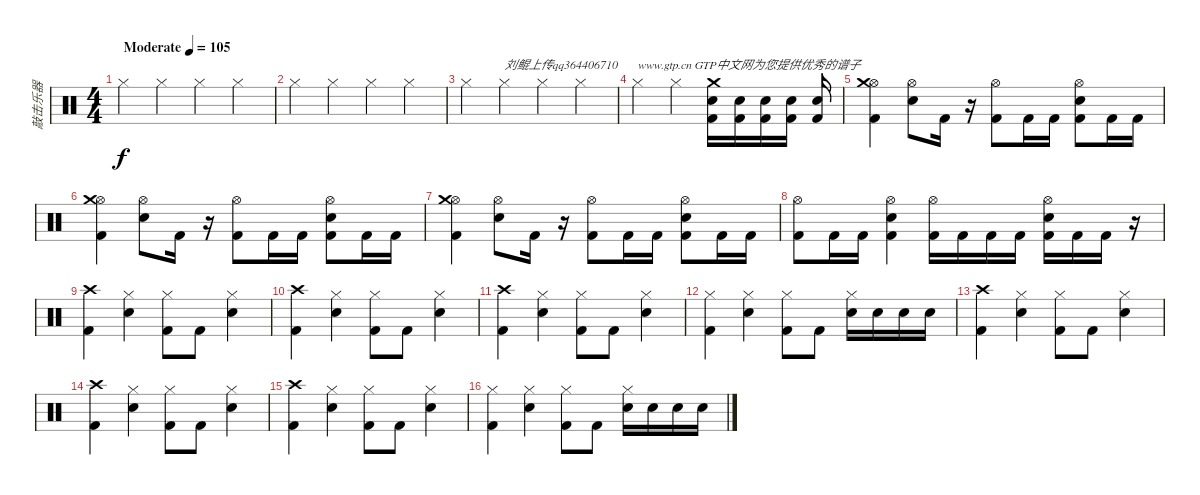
\track ("敲击乐器" "敲击乐器") {instrument percussion}
\staff {score}
\articulation defaults
\ts (4 4)
\tempo (105 "Moderate")
\clef neutral
\ks c "Hi-Hat (closed)".4{dy f} "Hi-Hat (closed)".4 "Hi-Hat (closed)".4 "Hi-Hat (closed)".4
|
"Hi-Hat (closed)".4 "Hi-Hat (closed)".4 "Hi-Hat (closed)".4 "Hi-Hat (closed)".4 |
"Hi-Hat (closed)".4 "Hi-Hat (closed)".4{txt "刘鲲上传qq364406710"} "Hi-Hat (closed)".4 "Hi-Hat (closed)".4 |
"Hi-Hat (closed)".4{txt "www.gtp.cn GTP中文网为您提供优秀的谱子"} "Hi-Hat (closed)".4 ("Kick (hit) 2" "Electric Snare (hit)" "Crash medium (hit)").16 ("Kick (hit) 2" "Electric Snare (hit)").16 ("Kick (hit) 2" "Electric Snare (hit)").16 ("Kick (hit) 2" "Electric Snare (hit)").16 ("Kick (hit) 2" "Electric Snare (hit)").16 |
("Kick (hit) 2" "Hi-Hat (open)" "Crash medium (hit)").4 ("Electric Snare (hit)" "Hi-Hat (open)").8 "Kick (hit) 2".16 r.16 ("Kick (hit) 2" "Hi-Hat (open)").8 "Kick (hit) 2".16 "Kick (hit) 2".16 ("Kick (hit) 2" "Electric Snare (hit)" "Hi-Hat (open)").8 "Kick (hit) 2".16 "Kick (hit) 2".16 |
("Kick (hit) 2" "Hi-Hat (open)" "Crash medium (hit)").4 ("Electric Snare (hit)" "Hi-Hat (open)").8 "Kick (hit) 2".16 r.16 ("Kick (hit) 2" "Hi-Hat (open)").8 "Kick (hit) 2".16 "Kick (hit) 2".16 ("Kick (hit) 2" "Electric Snare (hit)" "Hi-Hat (open)").8 "Kick (hit) 2".16 "Kick (hit) 2".16 |
("Kick (hit) 2" "Hi-Hat (open)" "Crash medium (hit)").4 ("Electric Snare (hit)" "Hi-Hat (open)").8 "Kick (hit) 2".16 r.16 ("Kick (hit) 2" "Hi-Hat (open)").8 "Kick (hit) 2".16 "Kick (hit) 2".16 ("Kick (hit) 2" "Electric Snare (hit)" "Hi-Hat (open)").8 "Kick (hit) 2".16 "Kick (hit) 2".16 |
("Kick (hit) 2" "Hi-Hat (open)").8 "Kick (hit) 2".16 "Kick (hit) 2".16 ("Kick (hit) 2" "Electric Snare (hit)" "Hi-Hat (open)").4 ("Kick (hit) 2" "Hi-Hat (open)").16 "Kick (hit) 2".16 "Kick (hit) 2".16 "Kick (hit) 2".16 ("Kick (hit) 2" "Electric Snare (hit)" "Hi-Hat (open)").16 "Kick (hit) 2".16 "Kick (hit) 2".16 r.16 |
("Crash high (hit)" "Kick (hit) 2").4 ("Hi-Hat (closed)" "Snare (hit) 2").4 ("Hi-Hat (closed)" "Kick (hit) 2").8 "Kick (hit) 2".8 ("Hi-Hat (closed)" "Snare (hit) 2").4 |
("Crash high (hit)" "Kick (hit) 2").4 ("Hi-Hat (closed)" "Snare (hit) 2").4 ("Hi-Hat (closed)" "Kick (hit) 2").8 "Kick (hit) 2".8 ("Hi-Hat (closed)" "Snare (hit) 2").4 |
("Crash high (hit)" "Kick (hit) 2").4 ("Hi-Hat (closed)" "Snare (hit) 2").4 ("Hi-Hat (closed)" "Kick (hit) 2").8 "Kick (hit) 2".8 ("Hi-Hat (closed)" "Snare (hit) 2").4 |
("Hi-Hat (closed)" "Kick (hit) 2").4 ("Hi-Hat (closed)" "Snare (hit) 2").4 ("Hi-Hat (closed)" "Kick (hit) 2").8 "Kick (hit) 2".8 ("Hi-Hat (closed)" "Snare (hit) 2").16 "Snare (hit) 2".16 "Snare (hit) 2".16 "Snare (hit) 2".16 |
("Crash high (hit)" "Kick (hit) 2").4 ("Hi-Hat (closed)" "Snare (hit) 2").4 ("Hi-Hat (closed)" "Kick (hit) 2").8 "Kick (hit) 2".8 ("Hi-Hat (closed)" "Snare (hit) 2").4 |
("Crash high (hit)" "Kick (hit) 2").4 ("Hi-Hat (closed)" "Snare (hit) 2").4 ("Hi-Hat (closed)" "Kick (hit) 2").8 "Kick (hit) 2".8 ("Hi-Hat (closed)" "Snare (hit) 2").4 |
("Crash high (hit)" "Kick (hit) 2").4 ("Hi-Hat (closed)" "Snare (hit) 2").4 ("Hi-Hat (closed)" "Kick (hit) 2").8 "Kick (hit) 2".8 ("Hi-Hat (closed)" "Snare (hit) 2").4 |
("Hi-Hat (closed)" "Kick (hit) 2").4 ("Hi-Hat (closed)" "Snare (hit) 2").4 ("Hi-Hat (closed)" "Kick (hit) 2").8 "Kick (hit) 2".8 ("Hi-Hat (closed)" "Snare (hit) 2").16 "Snare (hit) 2".16 "Snare (hit) 2".16 "Snare (hit) 2".16
